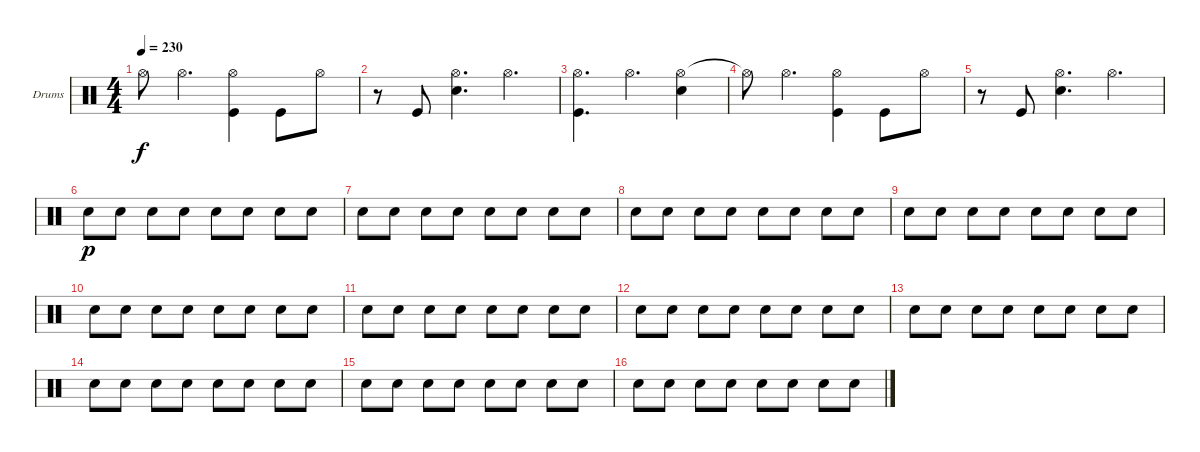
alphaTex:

\bracketExtendMode groupsimilarinstruments
\firstSystemTrackNameOrientation horizontal
\otherSystemsTrackNameOrientation horizontal
\track ("Drumkit" "Drums") {instrument percussion}
\staff {score}
\articulation defaults
\ts (4 4)
\tempo 230
\clef neutral
\ks c "Hi-Hat (open)"{t}.8{dy f} "Hi-Hat (open)".4{d}
("Hi-Hat (open)" "Kick (hit)").4 "Kick (hit)".8 "Hi-Hat (open)".8 |
r.8 "Kick (hit)".8 ("Hi-Hat (open)" "Snare (hit) 2").4{d} "Hi-Hat (open)".4{d} |
("Hi-Hat (open)" "Kick (hit)").4{d} "Hi-Hat (open)".4{d} ("Hi-Hat (open)" "Snare (hit) 2").4 |
"Hi-Hat (open)"{t}.8 "Hi-Hat (open)".4{d} ("Hi-Hat (open)" "Kick (hit)").4 "Kick (hit)".8 "Hi-Hat (open)".8 |
r.8 "Kick (hit)".8 ("Hi-Hat (open)" "Snare (hit) 2").4{d} "Hi-Hat (open)".4{d} |
"Snare (hit) 2".8{dy p} "Snare (hit) 2".8 "Snare (hit) 2".8 "Snare (hit) 2".8 "Snare (hit) 2".8 "Snare (hit) 2".8 "Snare (hit) 2".8 "Snare (hit) 2".8 |
"Snare (hit) 2".8 "Snare (hit) 2".8 "Snare (hit) 2".8 "Snare (hit) 2".8 "Snare (hit) 2".8 "Snare (hit) 2".8 "Snare (hit) 2".8 "Snare (hit) 2".8 |
"Snare (hit) 2".8 "Snare (hit) 2".8 "Snare (hit) 2".8 "Snare (hit) 2".8 "Snare (hit) 2".8 "Snare (hit) 2".8 "Snare (hit) 2".8 "Snare (hit) 2".8 |
"Snare (hit) 2".8 "Snare (hit) 2".8 "Snare (hit) 2".8 "Snare (hit) 2".8 "Snare (hit) 2".8 "Snare (hit) 2".8 "Snare (hit) 2".8 "Snare (hit) 2".8 |
"Snare (hit) 2".8 "Snare (hit) 2".8 "Snare (hit) 2".8 "Snare (hit) 2".8 "Snare (hit) 2".8 "Snare (hit) 2".8 "Snare (hit) 2".8 "Snare (hit) 2".8 |
"Snare (hit) 2".8 "Snare (hit) 2".8 "Snare (hit) 2".8 "Snare (hit) 2".8 "Snare (hit) 2".8 "Snare (hit) 2".8 "Snare (hit) 2".8 "Snare (hit) 2".8 |
"Snare (hit) 2".8 "Snare (hit) 2".8 "Snare (hit) 2".8 "Snare (hit) 2".8 "Snare (hit) 2".8 "Snare (hit) 2".8 "Snare (hit) 2".8 "Snare (hit) 2".8 |
"Snare (hit) 2".8 "Snare (hit) 2".8 "Snare (hit) 2".8 "Snare (hit) 2".8 "Snare (hit) 2".8 "Snare (hit) 2".8 "Snare (hit) 2".8 "Snare (hit) 2".8 |
"Snare (hit) 2".8 "Snare (hit) 2".8 "Snare (hit) 2".8 "Snare (hit) 2".8 "Snare (hit) 2".8 "Snare (hit) 2".8 "Snare (hit) 2".8 "Snare (hit) 2".8 |
"Snare (hit) 2".8 "Snare (hit) 2".8 "Snare (hit) 2".8 "Snare (hit) 2".8 "Snare (hit) 2".8 "Snare (hit) 2".8 "Snare (hit) 2".8 "Snare (hit) 2".8 |
"Snare (hit) 2".8 "Snare (hit) 2".8 "Snare (hit) 2".8 "Snare (hit) 2".8 "Snare (hit) 2".8 "Snare (hit) 2".8 "Snare (hit) 2".8 "Snare (hit) 2".8
